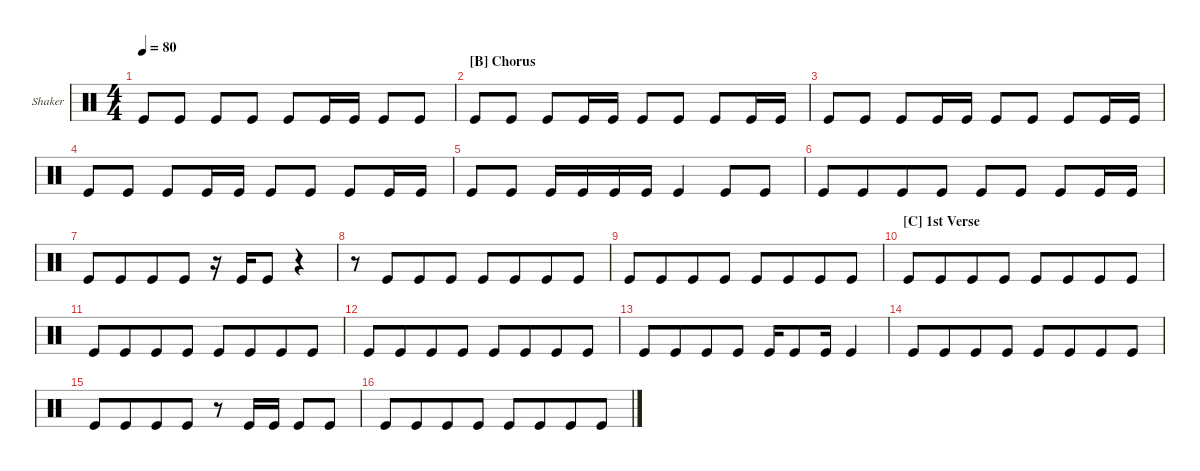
\defaultSystemsLayout 4
\hideDynamics
\bracketExtendMode groupsimilarinstruments
\firstSystemTrackNameOrientation horizontal
\otherSystemsTrackNameOrientation horizontal
\track ("Shaker" "Shaker") {multiBarRest instrument percussion}
\staff {score}
\articulation defaults
\ts (4 4)
\tempo 80
\clef neutral
\ks c "Kick (hit)".8{dy p} "Kick (hit)".8 "Kick (hit)".8 "Kick (hit)".8 "Kick (hit)".8 "Kick (hit)".16 "Kick (hit)".16 "Kick (hit)".8 "Kick (hit)".8
|
\section ("B" "Chorus")
"Kick (hit)".8 "Kick (hit)".8 "Kick (hit)".8 "Kick (hit)".16 "Kick (hit)".16 "Kick (hit)".8 "Kick (hit)".8 "Kick (hit)".8 "Kick (hit)".16 "Kick (hit)".16 |
"Kick (hit)".8 "Kick (hit)".8 "Kick (hit)".8 "Kick (hit)".16 "Kick (hit)".16 "Kick (hit)".8 "Kick (hit)".8 "Kick (hit)".8 "Kick (hit)".16 "Kick (hit)".16 |
"Kick (hit)".8 "Kick (hit)".8 "Kick (hit)".8 "Kick (hit)".16 "Kick (hit)".16 "Kick (hit)".8 "Kick (hit)".8 "Kick (hit)".8 "Kick (hit)".16 "Kick (hit)".16 |
"Kick (hit)".8 "Kick (hit)".8 "Kick (hit)".16 "Kick (hit)".16 "Kick (hit)".16 "Kick (hit)".16 "Kick (hit)".4 "Kick (hit)".8 "Kick (hit)".8 |
"Kick (hit)".8 "Kick (hit)".8{beam merge} "Kick (hit)".8 "Kick (hit)".8 "Kick (hit)".8 "Kick (hit)".8 "Kick (hit)".8 "Kick (hit)".16 "Kick (hit)".16 |
"Kick (hit)".8 "Kick (hit)".8{beam merge} "Kick (hit)".8 "Kick (hit)".8 r.16 "Kick (hit)".16 "Kick (hit)".8 r.4 |
r.8 "Kick (hit)".8{beam merge} "Kick (hit)".8 "Kick (hit)".8 "Kick (hit)".8 "Kick (hit)".8{beam merge} "Kick (hit)".8 "Kick (hit)".8 |
"Kick (hit)".8 "Kick (hit)".8{beam merge} "Kick (hit)".8 "Kick (hit)".8 "Kick (hit)".8 "Kick (hit)".8{beam merge} "Kick (hit)".8 "Kick (hit)".8 |
\section ("C" "1st Verse")
"Kick (hit)".8 "Kick (hit)".8{beam merge} "Kick (hit)".8 "Kick (hit)".8 "Kick (hit)".8 "Kick (hit)".8{beam merge} "Kick (hit)".8 "Kick (hit)".8 |
"Kick (hit)".8 "Kick (hit)".8{beam merge} "Kick (hit)".8 "Kick (hit)".8 "Kick (hit)".8 "Kick (hit)".8{beam merge} "Kick (hit)".8 "Kick (hit)".8 |
"Kick (hit)".8 "Kick (hit)".8{beam merge} "Kick (hit)".8 "Kick (hit)".8 "Kick (hit)".8 "Kick (hit)".8{beam merge} "Kick (hit)".8 "Kick (hit)".8 |
"Kick (hit)".8 "Kick (hit)".8{beam merge} "Kick (hit)".8 "Kick (hit)".8 "Kick (hit)".16 "Kick (hit)".8 "Kick (hit)".16 "Kick (hit)".4 |
"Kick (hit)".8 "Kick (hit)".8{beam merge} "Kick (hit)".8 "Kick (hit)".8 "Kick (hit)".8 "Kick (hit)".8{beam merge} "Kick (hit)".8 "Kick (hit)".8 |
"Kick (hit)".8 "Kick (hit)".8{beam merge} "Kick (hit)".8 "Kick (hit)".8 r.8 "Kick (hit)".16 "Kick (hit)".16 "Kick (hit)".8 "Kick (hit)".8 |
"Kick (hit)".8 "Kick (hit)".8{beam merge} "Kick (hit)".8 "Kick (hit)".8 "Kick (hit)".8 "Kick (hit)".8{beam merge} "Kick (hit)".8 "Kick (hit)".8
